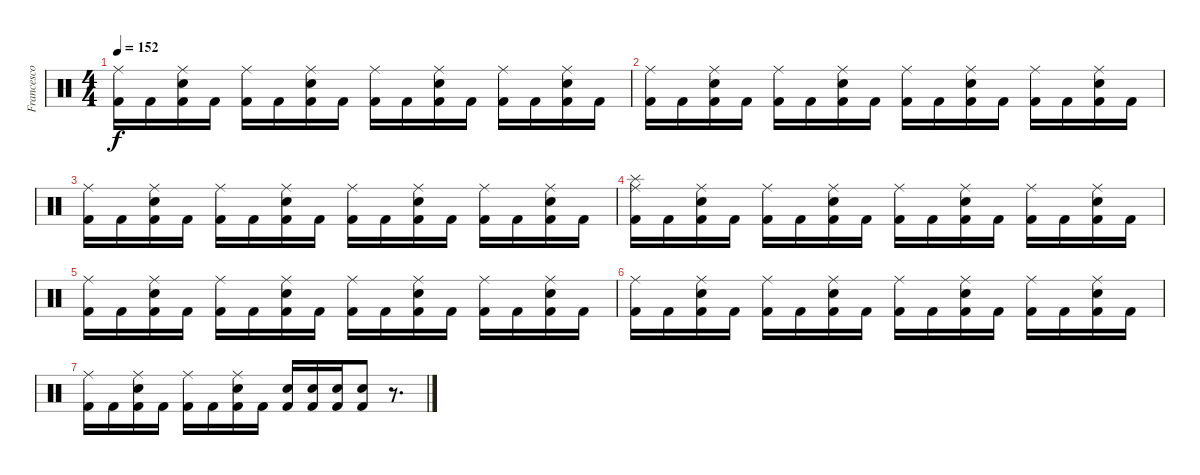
\track ("Francesco Tresa" "Francesco ") {instrument percussion}
\staff {score}
\articulation defaults
\ts (4 4)
\tempo 152
\clef neutral
\ks c
("Kick (hit) 2" "Ride (middle)").16{dy f} "Kick (hit) 2".16 ("Kick (hit) 2" "Snare (hit) 2" "Ride (middle)").16 "Kick (hit) 2".16 ("Kick (hit) 2" "Ride (middle)").16 "Kick (hit) 2".16 ("Kick (hit) 2" "Snare (hit) 2" "Ride (middle)").16 "Kick (hit) 2".16 ("Kick (hit) 2" "Ride (middle)").16 "Kick (hit) 2".16 ("Kick (hit) 2" "Snare (hit) 2" "Ride (middle)").16 "Kick (hit) 2".16 ("Kick (hit) 2" "Ride (middle)").16 "Kick (hit) 2".16 ("Kick (hit) 2" "Snare (hit) 2" "Ride (middle)").16 "Kick (hit) 2".16 |
("Kick (hit) 2" "Ride (middle)").16 "Kick (hit) 2".16 ("Kick (hit) 2" "Snare (hit) 2" "Ride (middle)").16 "Kick (hit) 2".16 ("Kick (hit) 2" "Ride (middle)").16 "Kick (hit) 2".16 ("Kick (hit) 2" "Snare (hit) 2" "Ride (middle)").16 "Kick (hit) 2".16 ("Kick (hit) 2" "Ride (middle)").16 "Kick (hit) 2".16 ("Kick (hit) 2" "Snare (hit) 2" "Ride (middle)").16 "Kick (hit) 2".16 ("Kick (hit) 2" "Ride (middle)").16 "Kick (hit) 2".16 ("Kick (hit) 2" "Snare (hit) 2" "Ride (middle)").16 "Kick (hit) 2".16 |
("Kick (hit) 2" "Ride (middle)").16 "Kick (hit) 2".16 ("Kick (hit) 2" "Snare (hit) 2" "Ride (middle)").16 "Kick (hit) 2".16 ("Kick (hit) 2" "Ride (middle)").16 "Kick (hit) 2".16 ("Kick (hit) 2" "Snare (hit) 2" "Ride (middle)").16 "Kick (hit) 2".16 ("Kick (hit) 2" "Ride (middle)").16 "Kick (hit) 2".16 ("Kick (hit) 2" "Snare (hit) 2" "Ride (middle)").16 "Kick (hit) 2".16 ("Kick (hit) 2" "Ride (middle)").16 "Kick (hit) 2".16 ("Kick (hit) 2" "Snare (hit) 2" "Ride (middle)").16 "Kick (hit) 2".16 |
("Kick (hit) 2" "Ride (middle)" "Splash (hit)").16 "Kick (hit) 2".16 ("Kick (hit) 2" "Snare (hit) 2" "Ride (middle)").16 "Kick (hit) 2".16 ("Kick (hit) 2" "Ride (middle)").16 "Kick (hit) 2".16 ("Kick (hit) 2" "Snare (hit) 2" "Ride (middle)").16 "Kick (hit) 2".16 ("Kick (hit) 2" "Ride (middle)").16 "Kick (hit) 2".16 ("Kick (hit) 2" "Snare (hit) 2" "Ride (middle)").16 "Kick (hit) 2".16 ("Kick (hit) 2" "Ride (middle)").16 "Kick (hit) 2".16 ("Kick (hit) 2" "Snare (hit) 2" "Ride (middle)").16 "Kick (hit) 2".16 |
("Kick (hit) 2" "Ride (middle)").16 "Kick (hit) 2".16 ("Kick (hit) 2" "Snare (hit) 2" "Ride (middle)").16 "Kick (hit) 2".16 ("Kick (hit) 2" "Ride (middle)").16 "Kick (hit) 2".16 ("Kick (hit) 2" "Snare (hit) 2" "Ride (middle)").16 "Kick (hit) 2".16 ("Kick (hit) 2" "Ride (middle)").16 "Kick (hit) 2".16 ("Kick (hit) 2" "Snare (hit) 2" "Ride (middle)").16 "Kick (hit) 2".16 ("Kick (hit) 2" "Ride (middle)").16 "Kick (hit) 2".16 ("Kick (hit) 2" "Snare (hit) 2" "Ride (middle)").16 "Kick (hit) 2".16 |
("Kick (hit) 2" "Ride (middle)").16 "Kick (hit) 2".16 ("Kick (hit) 2" "Snare (hit) 2" "Ride (middle)").16 "Kick (hit) 2".16 ("Kick (hit) 2" "Ride (middle)").16 "Kick (hit) 2".16 ("Kick (hit) 2" "Snare (hit) 2" "Ride (middle)").16 "Kick (hit) 2".16 ("Kick (hit) 2" "Ride (middle)").16 "Kick (hit) 2".16 ("Kick (hit) 2" "Snare (hit) 2" "Ride (middle)").16 "Kick (hit) 2".16 ("Kick (hit) 2" "Ride (middle)").16 "Kick (hit) 2".16 ("Kick (hit) 2" "Snare (hit) 2" "Ride (middle)").16 "Kick (hit) 2".16 |
("Kick (hit) 2" "Ride (middle)").16 "Kick (hit) 2".16 ("Kick (hit) 2" "Snare (hit) 2" "Ride (middle)").16 "Kick (hit) 2".16 ("Kick (hit) 2" "Ride (middle)").16 "Kick (hit) 2".16 ("Kick (hit) 2" "Snare (hit) 2" "Ride (middle)").16 "Kick (hit) 2".16 ("Kick (hit) 2" "Snare (hit) 2").16 ("Kick (hit) 2" "Snare (hit) 2").16 ("Kick (hit) 2" "Snare (hit) 2").16 ("Kick (hit) 2" "Snare (hit) 2").8 r.8{d}
